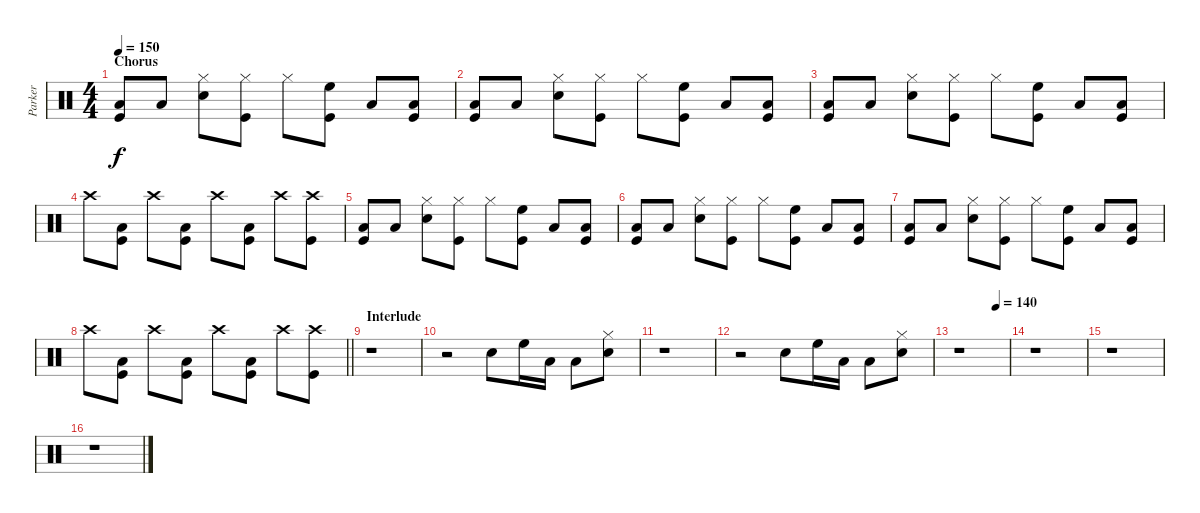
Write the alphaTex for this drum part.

\track ("Parker" "Parker") {instrument percussion}
\staff {score}
\articulation defaults
\ts (4 4)
\section ("" "Chorus")
\tempo 150
\clef neutral
\ks c
("Low Floor Tom (hit)" "Kick (hit)").8{dy f} "Low Tom (hit)".8 ("Hi-Hat (closed)" "Electric Snare (hit)").8 ("Hi-Hat (closed)" "Kick (hit)").8 "Hi-Hat (closed)".8 ("High Floor Tom (hit)" "Kick (hit)").8 "Low Tom (hit)".8 ("Low Floor Tom (hit)" "Kick (hit)").8 |
("Low Floor Tom (hit)" "Kick (hit)").8 "Low Tom (hit)".8 ("Hi-Hat (closed)" "Electric Snare (hit)").8 ("Hi-Hat (closed)" "Kick (hit)").8 "Hi-Hat (closed)".8 ("High Floor Tom (hit)" "Kick (hit)").8 "Low Tom (hit)".8 ("Low Floor Tom (hit)" "Kick (hit)").8 |
("Low Floor Tom (hit)" "Kick (hit)").8 "Low Tom (hit)".8 ("Hi-Hat (closed)" "Electric Snare (hit)").8 ("Hi-Hat (closed)" "Kick (hit)").8 "Hi-Hat (closed)".8 ("High Floor Tom (hit)" "Kick (hit)").8 "Low Tom (hit)".8 ("Low Floor Tom (hit)" "Kick (hit)").8 |
"Crash high (hit)".8 ("Low Floor Tom (hit)" "Kick (hit)").8 "Crash high (hit)".8 ("Low Floor Tom (hit)" "Kick (hit)").8 "Crash high (hit)".8 ("Low Floor Tom (hit)" "Kick (hit)").8 "Crash high (hit)".8 ("Crash high (hit)" "Kick (hit)").8 |
("Low Floor Tom (hit)" "Kick (hit)").8 "Low Tom (hit)".8 ("Hi-Hat (closed)" "Electric Snare (hit)").8 ("Hi-Hat (closed)" "Kick (hit)").8 "Hi-Hat (closed)".8 ("High Floor Tom (hit)" "Kick (hit)").8 "Low Tom (hit)".8 ("Low Floor Tom (hit)" "Kick (hit)").8 |
("Low Floor Tom (hit)" "Kick (hit)").8 "Low Tom (hit)".8 ("Hi-Hat (closed)" "Electric Snare (hit)").8 ("Hi-Hat (closed)" "Kick (hit)").8 "Hi-Hat (closed)".8 ("High Floor Tom (hit)" "Kick (hit)").8 "Low Tom (hit)".8 ("Low Floor Tom (hit)" "Kick (hit)").8 |
("Low Floor Tom (hit)" "Kick (hit)").8 "Low Tom (hit)".8 ("Hi-Hat (closed)" "Electric Snare (hit)").8 ("Hi-Hat (closed)" "Kick (hit)").8 "Hi-Hat (closed)".8 ("High Floor Tom (hit)" "Kick (hit)").8 "Low Tom (hit)".8 ("Low Floor Tom (hit)" "Kick (hit)").8 |
\barLineRight lightlight "Crash high (hit)".8
("Low Floor Tom (hit)" "Kick (hit)").8 "Crash high (hit)".8 ("Low Floor Tom (hit)" "Kick (hit)").8 "Crash high (hit)".8 ("Low Floor Tom (hit)" "Kick (hit)").8 "Crash high (hit)".8 ("Crash high (hit)" "Kick (hit)").8 |
\section ("" "Interlude")
r.1 |
r.2 "Snare (hit) 2".8 "High Floor Tom (hit)".16 "Low Tom (hit)".16 "Low Floor Tom (hit)".8 ("Hi-Hat (closed)" "Snare (hit) 2").8 |
r.1 |
r.2 "Snare (hit) 2".8 "High Floor Tom (hit)".16 "Low Tom (hit)".16 "Low Floor Tom (hit)".8 ("Hi-Hat (closed)" "Snare (hit) 2").8 |
\tempo (140 0.75)
r.1 |
r.1 |
r.1 |
r.1
